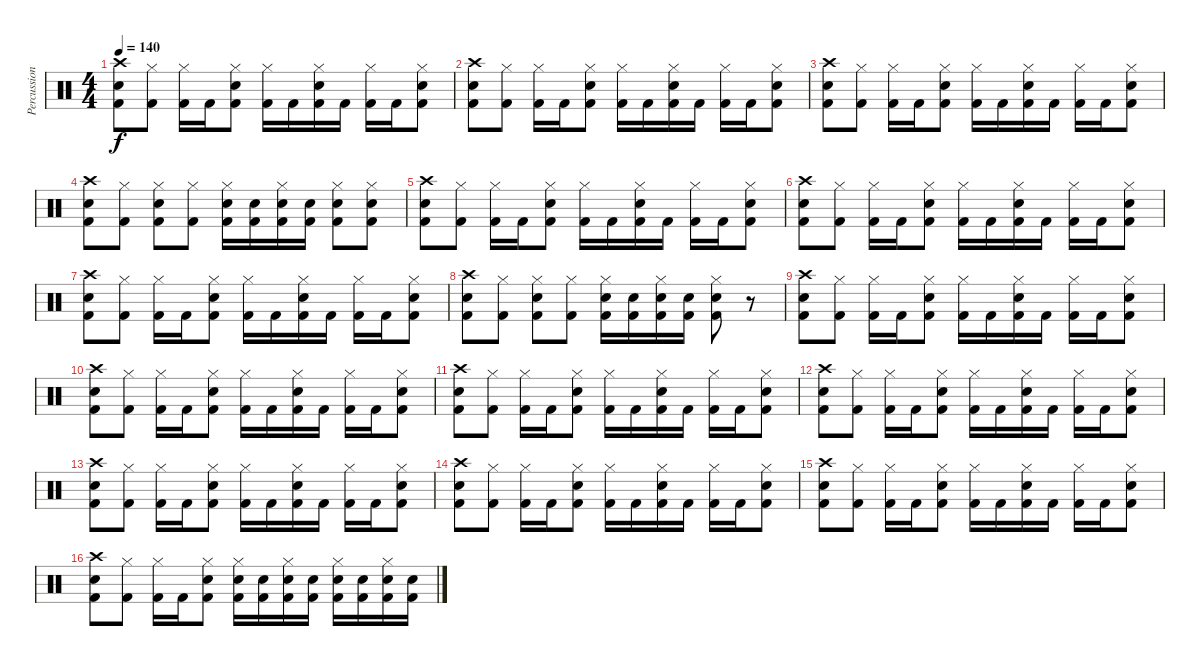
\track ("Percussion" "Percussion") {instrument percussion}
\staff {score}
\articulation defaults
\ts (4 4)
\tempo 140
\clef neutral
\ks aminor
("Crash high (hit)" "Snare (hit) 2" "Kick (hit) 2").8{dy f} ("Hi-Hat (closed)" "Kick (hit) 2").8 ("Hi-Hat (closed)" "Kick (hit) 2").16 "Kick (hit) 2".16 ("Hi-Hat (closed)" "Snare (hit) 2" "Kick (hit) 2").8 ("Hi-Hat (closed)" "Kick (hit) 2").16 "Kick (hit) 2".16 ("Hi-Hat (closed)" "Snare (hit) 2" "Kick (hit) 2").16 "Kick (hit) 2".16 ("Hi-Hat (closed)" "Kick (hit) 2").16 "Kick (hit) 2".16 ("Hi-Hat (closed)" "Snare (hit) 2" "Kick (hit) 2").8 |
("Crash high (hit)" "Snare (hit) 2" "Kick (hit) 2").8 ("Hi-Hat (closed)" "Kick (hit) 2").8 ("Hi-Hat (closed)" "Kick (hit) 2").16 "Kick (hit) 2".16 ("Hi-Hat (closed)" "Snare (hit) 2" "Kick (hit) 2").8 ("Hi-Hat (closed)" "Kick (hit) 2").16 "Kick (hit) 2".16 ("Hi-Hat (closed)" "Snare (hit) 2" "Kick (hit) 2").16 "Kick (hit) 2".16 ("Hi-Hat (closed)" "Kick (hit) 2").16 "Kick (hit) 2".16 ("Hi-Hat (closed)" "Snare (hit) 2" "Kick (hit) 2").8 |
("Crash high (hit)" "Snare (hit) 2" "Kick (hit) 2").8 ("Hi-Hat (closed)" "Kick (hit) 2").8 ("Hi-Hat (closed)" "Kick (hit) 2").16 "Kick (hit) 2".16 ("Hi-Hat (closed)" "Snare (hit) 2" "Kick (hit) 2").8 ("Hi-Hat (closed)" "Kick (hit) 2").16 "Kick (hit) 2".16 ("Hi-Hat (closed)" "Snare (hit) 2" "Kick (hit) 2").16 "Kick (hit) 2".16 ("Hi-Hat (closed)" "Kick (hit) 2").16 "Kick (hit) 2".16 ("Hi-Hat (closed)" "Snare (hit) 2" "Kick (hit) 2").8 |
("Crash high (hit)" "Snare (hit) 2" "Kick (hit) 2").8 ("Hi-Hat (closed)" "Kick (hit) 2").8 ("Hi-Hat (closed)" "Snare (hit) 2" "Kick (hit) 2").8 ("Hi-Hat (closed)" "Kick (hit) 2").8 ("Hi-Hat (closed)" "Snare (hit) 2" "Kick (hit) 2").16 ("Snare (hit) 2" "Kick (hit) 2").16 ("Hi-Hat (closed)" "Snare (hit) 2" "Kick (hit) 2").16 ("Snare (hit) 2" "Kick (hit) 2").16 ("Hi-Hat (closed)" "Snare (hit) 2" "Kick (hit) 2").8 ("Hi-Hat (closed)" "Snare (hit) 2" "Kick (hit) 2").8 |
("Crash high (hit)" "Snare (hit) 2" "Kick (hit) 2").8 ("Hi-Hat (closed)" "Kick (hit) 2").8 ("Hi-Hat (closed)" "Kick (hit) 2").16 "Kick (hit) 2".16 ("Hi-Hat (closed)" "Snare (hit) 2" "Kick (hit) 2").8 ("Hi-Hat (closed)" "Kick (hit) 2").16 "Kick (hit) 2".16 ("Hi-Hat (closed)" "Snare (hit) 2" "Kick (hit) 2").16 "Kick (hit) 2".16 ("Hi-Hat (closed)" "Kick (hit) 2").16 "Kick (hit) 2".16 ("Hi-Hat (closed)" "Snare (hit) 2" "Kick (hit) 2").8 |
("Crash high (hit)" "Snare (hit) 2" "Kick (hit) 2").8 ("Hi-Hat (closed)" "Kick (hit) 2").8 ("Hi-Hat (closed)" "Kick (hit) 2").16 "Kick (hit) 2".16 ("Hi-Hat (closed)" "Snare (hit) 2" "Kick (hit) 2").8 ("Hi-Hat (closed)" "Kick (hit) 2").16 "Kick (hit) 2".16 ("Hi-Hat (closed)" "Snare (hit) 2" "Kick (hit) 2").16 "Kick (hit) 2".16 ("Hi-Hat (closed)" "Kick (hit) 2").16 "Kick (hit) 2".16 ("Hi-Hat (closed)" "Snare (hit) 2" "Kick (hit) 2").8 |
("Crash high (hit)" "Snare (hit) 2" "Kick (hit) 2").8 ("Hi-Hat (closed)" "Kick (hit) 2").8 ("Hi-Hat (closed)" "Kick (hit) 2").16 "Kick (hit) 2".16 ("Hi-Hat (closed)" "Snare (hit) 2" "Kick (hit) 2").8 ("Hi-Hat (closed)" "Kick (hit) 2").16 "Kick (hit) 2".16 ("Hi-Hat (closed)" "Snare (hit) 2" "Kick (hit) 2").16 "Kick (hit) 2".16 ("Hi-Hat (closed)" "Kick (hit) 2").16 "Kick (hit) 2".16 ("Hi-Hat (closed)" "Snare (hit) 2" "Kick (hit) 2").8 |
("Crash high (hit)" "Snare (hit) 2" "Kick (hit) 2").8 ("Hi-Hat (closed)" "Kick (hit) 2").8 ("Hi-Hat (closed)" "Snare (hit) 2" "Kick (hit) 2").8 ("Hi-Hat (closed)" "Kick (hit) 2").8 ("Hi-Hat (closed)" "Snare (hit) 2" "Kick (hit) 2").16 ("Snare (hit) 2" "Kick (hit) 2").16 ("Hi-Hat (closed)" "Snare (hit) 2" "Kick (hit) 2").16 ("Snare (hit) 2" "Kick (hit) 2").16 ("Hi-Hat (closed)" "Snare (hit) 2" "Kick (hit) 2").8 r.8 |
("Crash high (hit)" "Snare (hit) 2" "Kick (hit) 2").8 ("Hi-Hat (closed)" "Kick (hit) 2").8 ("Hi-Hat (closed)" "Kick (hit) 2").16 "Kick (hit) 2".16 ("Hi-Hat (closed)" "Snare (hit) 2" "Kick (hit) 2").8 ("Hi-Hat (closed)" "Kick (hit) 2").16 "Kick (hit) 2".16 ("Hi-Hat (closed)" "Snare (hit) 2" "Kick (hit) 2").16 "Kick (hit) 2".16 ("Hi-Hat (closed)" "Kick (hit) 2").16 "Kick (hit) 2".16 ("Hi-Hat (closed)" "Snare (hit) 2" "Kick (hit) 2").8 |
("Crash high (hit)" "Snare (hit) 2" "Kick (hit) 2").8 ("Hi-Hat (closed)" "Kick (hit) 2").8 ("Hi-Hat (closed)" "Kick (hit) 2").16 "Kick (hit) 2".16 ("Hi-Hat (closed)" "Snare (hit) 2" "Kick (hit) 2").8 ("Hi-Hat (closed)" "Kick (hit) 2").16 "Kick (hit) 2".16 ("Hi-Hat (closed)" "Snare (hit) 2" "Kick (hit) 2").16 "Kick (hit) 2".16 ("Hi-Hat (closed)" "Kick (hit) 2").16 "Kick (hit) 2".16 ("Hi-Hat (closed)" "Snare (hit) 2" "Kick (hit) 2").8 |
("Crash high (hit)" "Snare (hit) 2" "Kick (hit) 2").8 ("Hi-Hat (closed)" "Kick (hit) 2").8 ("Hi-Hat (closed)" "Kick (hit) 2").16 "Kick (hit) 2".16 ("Hi-Hat (closed)" "Snare (hit) 2" "Kick (hit) 2").8 ("Hi-Hat (closed)" "Kick (hit) 2").16 "Kick (hit) 2".16 ("Hi-Hat (closed)" "Snare (hit) 2" "Kick (hit) 2").16 "Kick (hit) 2".16 ("Hi-Hat (closed)" "Kick (hit) 2").16 "Kick (hit) 2".16 ("Hi-Hat (closed)" "Snare (hit) 2" "Kick (hit) 2").8 |
("Crash high (hit)" "Snare (hit) 2" "Kick (hit) 2").8 ("Hi-Hat (closed)" "Kick (hit) 2").8 ("Hi-Hat (closed)" "Kick (hit) 2").16 "Kick (hit) 2".16 ("Hi-Hat (closed)" "Snare (hit) 2" "Kick (hit) 2").8 ("Hi-Hat (closed)" "Kick (hit) 2").16 "Kick (hit) 2".16 ("Hi-Hat (closed)" "Snare (hit) 2" "Kick (hit) 2").16 "Kick (hit) 2".16 ("Hi-Hat (closed)" "Kick (hit) 2").16 "Kick (hit) 2".16 ("Hi-Hat (closed)" "Snare (hit) 2" "Kick (hit) 2").8 |
("Crash high (hit)" "Snare (hit) 2" "Kick (hit) 2").8 ("Hi-Hat (closed)" "Kick (hit) 2").8 ("Hi-Hat (closed)" "Kick (hit) 2").16 "Kick (hit) 2".16 ("Hi-Hat (closed)" "Snare (hit) 2" "Kick (hit) 2").8 ("Hi-Hat (closed)" "Kick (hit) 2").16 "Kick (hit) 2".16 ("Hi-Hat (closed)" "Snare (hit) 2" "Kick (hit) 2").16 "Kick (hit) 2".16 ("Hi-Hat (closed)" "Kick (hit) 2").16 "Kick (hit) 2".16 ("Hi-Hat (closed)" "Snare (hit) 2" "Kick (hit) 2").8 |
("Crash high (hit)" "Snare (hit) 2" "Kick (hit) 2").8 ("Hi-Hat (closed)" "Kick (hit) 2").8 ("Hi-Hat (closed)" "Kick (hit) 2").16 "Kick (hit) 2".16 ("Hi-Hat (closed)" "Snare (hit) 2" "Kick (hit) 2").8 ("Hi-Hat (closed)" "Kick (hit) 2").16 "Kick (hit) 2".16 ("Hi-Hat (closed)" "Snare (hit) 2" "Kick (hit) 2").16 "Kick (hit) 2".16 ("Hi-Hat (closed)" "Kick (hit) 2").16 "Kick (hit) 2".16 ("Hi-Hat (closed)" "Snare (hit) 2" "Kick (hit) 2").8 |
("Crash high (hit)" "Snare (hit) 2" "Kick (hit) 2").8 ("Hi-Hat (closed)" "Kick (hit) 2").8 ("Hi-Hat (closed)" "Kick (hit) 2").16 "Kick (hit) 2".16 ("Hi-Hat (closed)" "Snare (hit) 2" "Kick (hit) 2").8 ("Hi-Hat (closed)" "Kick (hit) 2").16 "Kick (hit) 2".16 ("Hi-Hat (closed)" "Snare (hit) 2" "Kick (hit) 2").16 "Kick (hit) 2".16 ("Hi-Hat (closed)" "Kick (hit) 2").16 "Kick (hit) 2".16 ("Hi-Hat (closed)" "Snare (hit) 2" "Kick (hit) 2").8 |
("Crash high (hit)" "Snare (hit) 2" "Kick (hit) 2").8 ("Hi-Hat (closed)" "Kick (hit) 2").8 ("Hi-Hat (closed)" "Kick (hit) 2").16 "Kick (hit) 2".16 ("Hi-Hat (closed)" "Snare (hit) 2" "Kick (hit) 2").8 ("Hi-Hat (closed)" "Snare (hit) 2" "Kick (hit) 2").16 ("Snare (hit) 2" "Kick (hit) 2").16 ("Hi-Hat (closed)" "Snare (hit) 2" "Kick (hit) 2").16 ("Snare (hit) 2" "Kick (hit) 2").16 ("Hi-Hat (closed)" "Snare (hit) 2" "Kick (hit) 2").16 ("Snare (hit) 2" "Kick (hit) 2").16 ("Hi-Hat (closed)" "Snare (hit) 2" "Kick (hit) 2").16 ("Snare (hit) 2" "Kick (hit) 2").16
